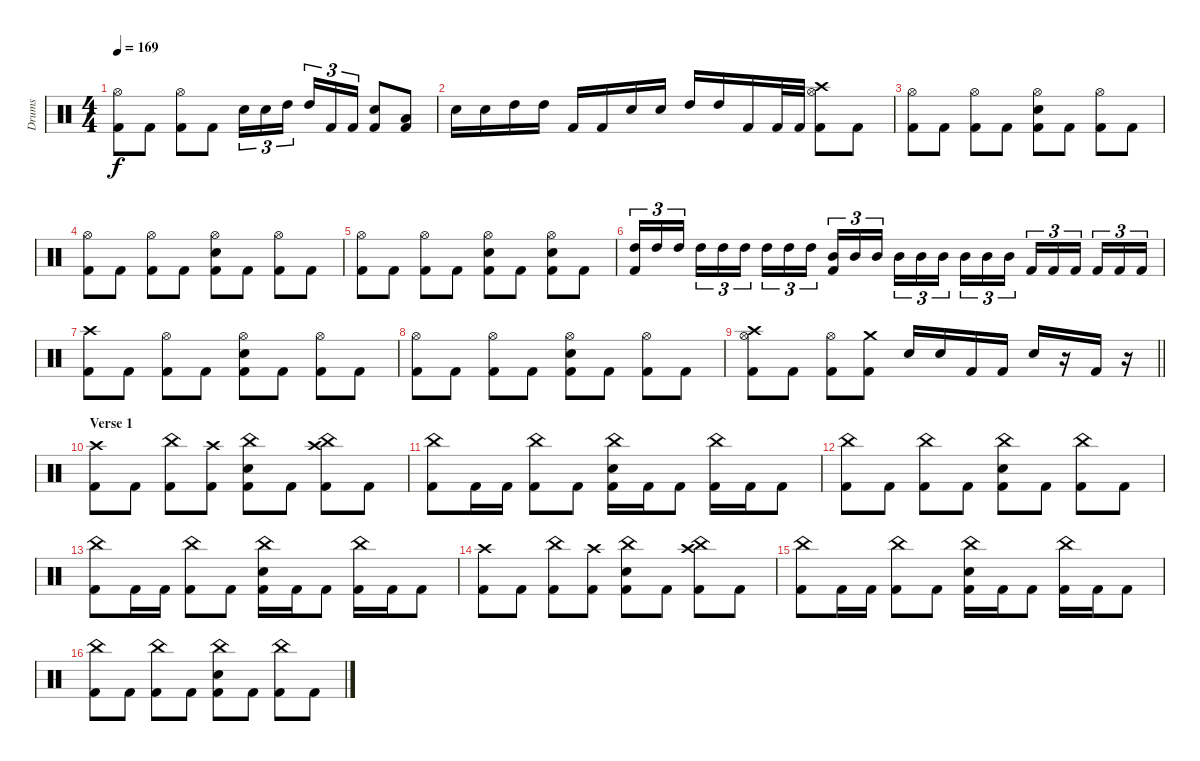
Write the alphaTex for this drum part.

\track ("Drums" "Drums") {instrument percussion}
\staff {score}
\articulation defaults
\ts (4 4)
\tempo 169
\clef neutral
\ks c
("Hi-Hat (open)" "Kick (hit) 2").8{dy f} "Kick (hit) 2".8 ("Hi-Hat (open)" "Kick (hit) 2").8 "Kick (hit) 2".8 "Snare (hit) 2".16{tu (3 2)} "Snare (hit) 2".16{tu (3 2)} "High Tom (hit)".16{tu (3 2) beam splitsecondary} "High Tom (hit)".16{tu (3 2)} "Kick (hit) 2".16{tu (3 2)} "Kick (hit) 2".16{tu (3 2)} ("Snare (hit) 2" "Kick (hit) 2").8 ("Low Tom (hit)" "Kick (hit) 2").8 |
"Snare (hit) 2".16 "Snare (hit) 2".16 "High Tom (hit)".16 "High Tom (hit)".16 "Kick (hit) 2".16 "Kick (hit) 2".16 "Snare (hit) 2".16 "Snare (hit) 2".16 "High Tom (hit)".16 "High Tom (hit)".16 "Kick (hit) 2".16 "Kick (hit) 2".32 "Kick (hit) 2".32 ("Crash high (hit)" "Hi-Hat (open)" "Kick (hit) 2").8 "Kick (hit) 2".8 |
("Hi-Hat (open)" "Kick (hit) 2").8 "Kick (hit) 2".8 ("Hi-Hat (open)" "Kick (hit) 2").8 "Kick (hit) 2".8 ("Hi-Hat (open)" "Snare (hit) 2" "Kick (hit) 2").8 "Kick (hit) 2".8 ("Hi-Hat (open)" "Kick (hit) 2").8 "Kick (hit) 2".8 |
("Hi-Hat (open)" "Kick (hit) 2").8 "Kick (hit) 2".8 ("Hi-Hat (open)" "Kick (hit) 2").8 "Kick (hit) 2".8 ("Hi-Hat (open)" "Snare (hit) 2" "Kick (hit) 2").8 "Kick (hit) 2".8 ("Hi-Hat (open)" "Kick (hit) 2").8 "Kick (hit) 2".8 |
("Hi-Hat (open)" "Kick (hit) 2").8 "Kick (hit) 2".8 ("Hi-Hat (open)" "Kick (hit) 2").8 "Kick (hit) 2".8 ("Hi-Hat (open)" "Snare (hit) 2" "Kick (hit) 2").8 "Kick (hit) 2".8 ("Hi-Hat (open)" "Snare (hit) 2" "Kick (hit) 2").8 "Kick (hit) 2".8 |
("High Tom (hit)" "Kick (hit) 2").16{tu (3 2)} "High Tom (hit)".16{tu (3 2)} "High Tom (hit)".16{tu (3 2) beam splitsecondary} "High Tom (hit)".16{tu (3 2)} "High Tom (hit)".16{tu (3 2)} "High Tom (hit)".16{tu (3 2)} "High Tom (hit)".16{tu (3 2)} "High Tom (hit)".16{tu (3 2)} "High Tom (hit)".16{tu (3 2) beam splitsecondary} ("Mid Tom (hit)" "Kick (hit) 2").16{tu (3 2)} "Mid Tom (hit)".16{tu (3 2)} "Mid Tom (hit)".16{tu (3 2)} "Mid Tom (hit)".16{tu (3 2)} "Mid Tom (hit)".16{tu (3 2)} "Mid Tom (hit)".16{tu (3 2) beam splitsecondary} "Mid Tom (hit)".16{tu (3 2)} "Mid Tom (hit)".16{tu (3 2)} "Mid Tom (hit)".16{tu (3 2)} "Kick (hit) 2".16{tu (3 2)} "Kick (hit) 2".16{tu (3 2)} "Kick (hit) 2".16{tu (3 2) beam splitsecondary} "Kick (hit) 2".16{tu (3 2)} "Kick (hit) 2".16{tu (3 2)} "Kick (hit) 2".16{tu (3 2)} |
("Crash high (hit)" "Kick (hit) 2").8 "Kick (hit) 2".8 ("Hi-Hat (open)" "Kick (hit) 2").8 "Kick (hit) 2".8 ("Hi-Hat (open)" "Snare (hit) 2" "Kick (hit) 2").8 "Kick (hit) 2".8 ("Hi-Hat (open)" "Kick (hit) 2").8 "Kick (hit) 2".8 |
("Hi-Hat (open)" "Kick (hit) 2").8 "Kick (hit) 2".8 ("Hi-Hat (open)" "Kick (hit) 2").8 "Kick (hit) 2".8 ("Hi-Hat (open)" "Snare (hit) 2" "Kick (hit) 2").8 "Kick (hit) 2".8 ("Hi-Hat (open)" "Kick (hit) 2").8 "Kick (hit) 2".8 |
\barLineRight lightlight
("Crash high (hit)" "Hi-Hat (open)" "Kick (hit) 2").8 "Kick (hit) 2".8 ("Hi-Hat (open)" "Kick (hit) 2").8 ("Crash medium (hit)" "Kick (hit) 2").8 "Snare (hit) 2".16 "Snare (hit) 2".16 "Kick (hit) 2".16 "Kick (hit) 2".16 "Snare (hit) 2".16 r.16 "Kick (hit) 2".16 r.16 |
\section ("" "Verse 1")
("Crash high (hit)" "Kick (hit) 2").8 "Kick (hit) 2".8 ("China (hit)" "Kick (hit) 2").8 ("Crash high (hit)" "Kick (hit) 2").8 ("China (hit)" "Snare (hit) 2" "Kick (hit) 2").8 "Kick (hit) 2".8 ("Crash high (hit)" "China (hit)" "Kick (hit) 2").8 "Kick (hit) 2".8 |
("China (hit)" "Kick (hit) 2").8 "Kick (hit) 2".16 "Kick (hit) 2".16 ("China (hit)" "Kick (hit) 2").8 "Kick (hit) 2".8 ("China (hit)" "Snare (hit) 2" "Kick (hit) 2").16 "Kick (hit) 2".16 "Kick (hit) 2".8 ("China (hit)" "Kick (hit) 2").16 "Kick (hit) 2".16 "Kick (hit) 2".8 |
("China (hit)" "Kick (hit) 2").8 "Kick (hit) 2".8 ("China (hit)" "Kick (hit) 2").8 "Kick (hit) 2".8 ("China (hit)" "Snare (hit) 2" "Kick (hit) 2").8 "Kick (hit) 2".8 ("China (hit)" "Kick (hit) 2").8 "Kick (hit) 2".8 |
("China (hit)" "Kick (hit) 2").8 "Kick (hit) 2".16 "Kick (hit) 2".16 ("China (hit)" "Kick (hit) 2").8 "Kick (hit) 2".8 ("China (hit)" "Snare (hit) 2" "Kick (hit) 2").16 "Kick (hit) 2".16 "Kick (hit) 2".8 ("China (hit)" "Kick (hit) 2").16 "Kick (hit) 2".16 "Kick (hit) 2".8 |
("Crash high (hit)" "Kick (hit) 2").8 "Kick (hit) 2".8 ("China (hit)" "Kick (hit) 2").8 ("Crash high (hit)" "Kick (hit) 2").8 ("China (hit)" "Snare (hit) 2" "Kick (hit) 2").8 "Kick (hit) 2".8 ("Crash high (hit)" "China (hit)" "Kick (hit) 2").8 "Kick (hit) 2".8 |
("China (hit)" "Kick (hit) 2").8 "Kick (hit) 2".16 "Kick (hit) 2".16 ("China (hit)" "Kick (hit) 2").8 "Kick (hit) 2".8 ("China (hit)" "Snare (hit) 2" "Kick (hit) 2").16 "Kick (hit) 2".16 "Kick (hit) 2".8 ("China (hit)" "Kick (hit) 2").16 "Kick (hit) 2".16 "Kick (hit) 2".8 |
("China (hit)" "Kick (hit) 2").8 "Kick (hit) 2".8 ("China (hit)" "Kick (hit) 2").8 "Kick (hit) 2".8 ("China (hit)" "Snare (hit) 2" "Kick (hit) 2").8 "Kick (hit) 2".8 ("China (hit)" "Kick (hit) 2").8 "Kick (hit) 2".8
